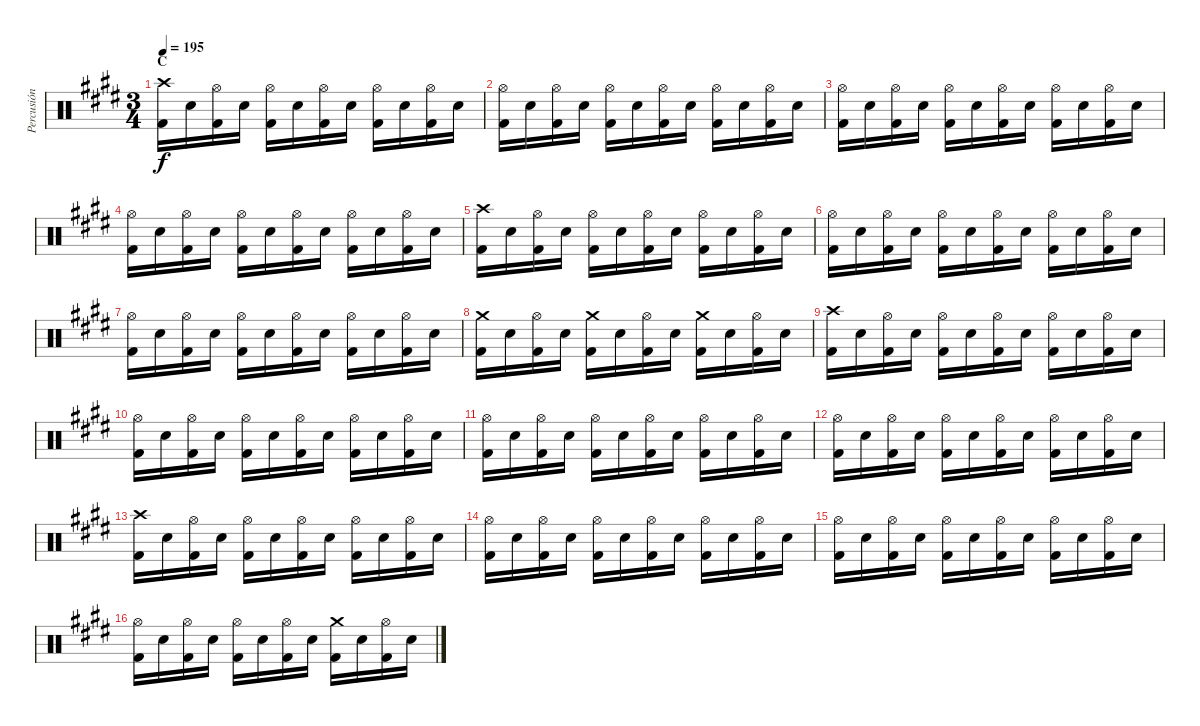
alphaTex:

\track ("Percusión" "Percusión") {instrument percussion}
\staff {score}
\articulation defaults
\ts (3 4)
\section ("" "C")
\tempo 195
\clef neutral
\ks e
("Crash high (hit)" "Kick (hit) 2").16{dy f} "Electric Snare (hit)".16 ("Hi-Hat (open)" "Kick (hit) 2").16 "Electric Snare (hit)".16 ("Hi-Hat (open)" "Kick (hit) 2").16 "Electric Snare (hit)".16 ("Hi-Hat (open)" "Kick (hit) 2").16 "Electric Snare (hit)".16 ("Hi-Hat (open)" "Kick (hit) 2").16 "Electric Snare (hit)".16 ("Hi-Hat (open)" "Kick (hit) 2").16 "Electric Snare (hit)".16 |
("Hi-Hat (open)" "Kick (hit) 2").16 "Electric Snare (hit)".16 ("Hi-Hat (open)" "Kick (hit) 2").16 "Electric Snare (hit)".16 ("Hi-Hat (open)" "Kick (hit) 2").16 "Electric Snare (hit)".16 ("Hi-Hat (open)" "Kick (hit) 2").16 "Electric Snare (hit)".16 ("Hi-Hat (open)" "Kick (hit) 2").16 "Electric Snare (hit)".16 ("Hi-Hat (open)" "Kick (hit) 2").16 "Electric Snare (hit)".16 |
("Hi-Hat (open)" "Kick (hit) 2").16 "Electric Snare (hit)".16 ("Hi-Hat (open)" "Kick (hit) 2").16 "Electric Snare (hit)".16 ("Hi-Hat (open)" "Kick (hit) 2").16 "Electric Snare (hit)".16 ("Hi-Hat (open)" "Kick (hit) 2").16 "Electric Snare (hit)".16 ("Hi-Hat (open)" "Kick (hit) 2").16 "Electric Snare (hit)".16 ("Hi-Hat (open)" "Kick (hit) 2").16 "Electric Snare (hit)".16 |
("Hi-Hat (open)" "Kick (hit) 2").16 "Electric Snare (hit)".16 ("Hi-Hat (open)" "Kick (hit) 2").16 "Electric Snare (hit)".16 ("Hi-Hat (open)" "Kick (hit) 2").16 "Electric Snare (hit)".16 ("Hi-Hat (open)" "Kick (hit) 2").16 "Electric Snare (hit)".16 ("Hi-Hat (open)" "Kick (hit) 2").16 "Electric Snare (hit)".16 ("Hi-Hat (open)" "Kick (hit) 2").16 "Electric Snare (hit)".16 |
("Crash high (hit)" "Kick (hit) 2").16 "Electric Snare (hit)".16 ("Hi-Hat (open)" "Kick (hit) 2").16 "Electric Snare (hit)".16 ("Hi-Hat (open)" "Kick (hit) 2").16 "Electric Snare (hit)".16 ("Hi-Hat (open)" "Kick (hit) 2").16 "Electric Snare (hit)".16 ("Hi-Hat (open)" "Kick (hit) 2").16 "Electric Snare (hit)".16 ("Hi-Hat (open)" "Kick (hit) 2").16 "Electric Snare (hit)".16 |
("Hi-Hat (open)" "Kick (hit) 2").16 "Electric Snare (hit)".16 ("Hi-Hat (open)" "Kick (hit) 2").16 "Electric Snare (hit)".16 ("Hi-Hat (open)" "Kick (hit) 2").16 "Electric Snare (hit)".16 ("Hi-Hat (open)" "Kick (hit) 2").16 "Electric Snare (hit)".16 ("Hi-Hat (open)" "Kick (hit) 2").16 "Electric Snare (hit)".16 ("Hi-Hat (open)" "Kick (hit) 2").16 "Electric Snare (hit)".16 |
("Hi-Hat (open)" "Kick (hit) 2").16 "Electric Snare (hit)".16 ("Hi-Hat (open)" "Kick (hit) 2").16 "Electric Snare (hit)".16 ("Hi-Hat (open)" "Kick (hit) 2").16 "Electric Snare (hit)".16 ("Hi-Hat (open)" "Kick (hit) 2").16 "Electric Snare (hit)".16 ("Hi-Hat (open)" "Kick (hit) 2").16 "Electric Snare (hit)".16 ("Hi-Hat (open)" "Kick (hit) 2").16 "Electric Snare (hit)".16 |
("Crash medium (hit)" "Kick (hit) 2").16 "Electric Snare (hit)".16 ("Hi-Hat (open)" "Kick (hit) 2").16 "Electric Snare (hit)".16 ("Crash medium (hit)" "Kick (hit) 2").16 "Electric Snare (hit)".16 ("Hi-Hat (open)" "Kick (hit) 2").16 "Electric Snare (hit)".16 ("Crash medium (hit)" "Kick (hit) 2").16 "Electric Snare (hit)".16 ("Hi-Hat (open)" "Kick (hit) 2").16 "Electric Snare (hit)".16 |
("Crash high (hit)" "Kick (hit) 2").16 "Electric Snare (hit)".16 ("Hi-Hat (open)" "Kick (hit) 2").16 "Electric Snare (hit)".16 ("Hi-Hat (open)" "Kick (hit) 2").16 "Electric Snare (hit)".16 ("Hi-Hat (open)" "Kick (hit) 2").16 "Electric Snare (hit)".16 ("Hi-Hat (open)" "Kick (hit) 2").16 "Electric Snare (hit)".16 ("Hi-Hat (open)" "Kick (hit) 2").16 "Electric Snare (hit)".16 |
("Hi-Hat (open)" "Kick (hit) 2").16 "Electric Snare (hit)".16 ("Hi-Hat (open)" "Kick (hit) 2").16 "Electric Snare (hit)".16 ("Hi-Hat (open)" "Kick (hit) 2").16 "Electric Snare (hit)".16 ("Hi-Hat (open)" "Kick (hit) 2").16 "Electric Snare (hit)".16 ("Hi-Hat (open)" "Kick (hit) 2").16 "Electric Snare (hit)".16 ("Hi-Hat (open)" "Kick (hit) 2").16 "Electric Snare (hit)".16 |
("Hi-Hat (open)" "Kick (hit) 2").16 "Electric Snare (hit)".16 ("Hi-Hat (open)" "Kick (hit) 2").16 "Electric Snare (hit)".16 ("Hi-Hat (open)" "Kick (hit) 2").16 "Electric Snare (hit)".16 ("Hi-Hat (open)" "Kick (hit) 2").16 "Electric Snare (hit)".16 ("Hi-Hat (open)" "Kick (hit) 2").16 "Electric Snare (hit)".16 ("Hi-Hat (open)" "Kick (hit) 2").16 "Electric Snare (hit)".16 |
("Hi-Hat (open)" "Kick (hit) 2").16 "Electric Snare (hit)".16 ("Hi-Hat (open)" "Kick (hit) 2").16 "Electric Snare (hit)".16 ("Hi-Hat (open)" "Kick (hit) 2").16 "Electric Snare (hit)".16 ("Hi-Hat (open)" "Kick (hit) 2").16 "Electric Snare (hit)".16 ("Hi-Hat (open)" "Kick (hit) 2").16 "Electric Snare (hit)".16 ("Hi-Hat (open)" "Kick (hit) 2").16 "Electric Snare (hit)".16 |
("Crash high (hit)" "Kick (hit) 2").16 "Electric Snare (hit)".16 ("Hi-Hat (open)" "Kick (hit) 2").16 "Electric Snare (hit)".16 ("Hi-Hat (open)" "Kick (hit) 2").16 "Electric Snare (hit)".16 ("Hi-Hat (open)" "Kick (hit) 2").16 "Electric Snare (hit)".16 ("Hi-Hat (open)" "Kick (hit) 2").16 "Electric Snare (hit)".16 ("Hi-Hat (open)" "Kick (hit) 2").16 "Electric Snare (hit)".16 |
("Hi-Hat (open)" "Kick (hit) 2").16 "Electric Snare (hit)".16 ("Hi-Hat (open)" "Kick (hit) 2").16 "Electric Snare (hit)".16 ("Hi-Hat (open)" "Kick (hit) 2").16 "Electric Snare (hit)".16 ("Hi-Hat (open)" "Kick (hit) 2").16 "Electric Snare (hit)".16 ("Hi-Hat (open)" "Kick (hit) 2").16 "Electric Snare (hit)".16 ("Hi-Hat (open)" "Kick (hit) 2").16 "Electric Snare (hit)".16 |
("Hi-Hat (open)" "Kick (hit) 2").16 "Electric Snare (hit)".16 ("Hi-Hat (open)" "Kick (hit) 2").16 "Electric Snare (hit)".16 ("Hi-Hat (open)" "Kick (hit) 2").16 "Electric Snare (hit)".16 ("Hi-Hat (open)" "Kick (hit) 2").16 "Electric Snare (hit)".16 ("Hi-Hat (open)" "Kick (hit) 2").16 "Electric Snare (hit)".16 ("Hi-Hat (open)" "Kick (hit) 2").16 "Electric Snare (hit)".16 |
("Hi-Hat (open)" "Kick (hit) 2").16 "Electric Snare (hit)".16 ("Hi-Hat (open)" "Kick (hit) 2").16 "Electric Snare (hit)".16 ("Hi-Hat (open)" "Kick (hit) 2").16 "Electric Snare (hit)".16 ("Hi-Hat (open)" "Kick (hit) 2").16 "Electric Snare (hit)".16 ("Crash medium (hit)" "Kick (hit) 2").16 "Electric Snare (hit)".16 ("Hi-Hat (open)" "Kick (hit) 2").16 "Electric Snare (hit)".16
